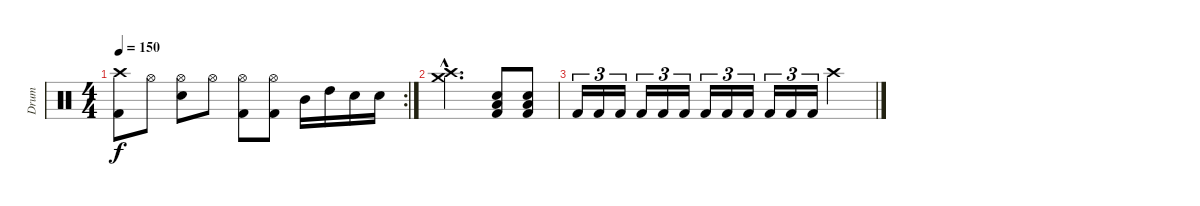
\track ("Drum" "Drum") {instrument percussion}
\staff {score}
\articulation defaults
\rc 2
\ts (4 4)
\tempo 150
\clef neutral
\ks c
("Crash high (hit)" "Kick (hit) 2").8{dy f} "Hi-Hat (open)".8 ("Hi-Hat (open)" "Electric Snare (hit)").8 "Hi-Hat (open)".8 ("Hi-Hat (open)" "Kick (hit) 2").8 ("Hi-Hat (open)" "Kick (hit) 2").8 "Mid Tom (hit)".16 "High Tom (hit)".16 "Electric Snare (hit)".16 "Electric Snare (hit)".16 |
("Crash high (hit)"{hac} "Crash medium (hit)"{hac}).2{d} ("Low Floor Tom (hit)" "Electric Snare (hit)" "Kick (hit) 2").8{volume 16} ("Low Floor Tom (hit)" "Electric Snare (hit)" "Kick (hit) 2").8{volume 16} |
"Kick (hit) 2".16{tu (3 2)} "Kick (hit) 2".16{tu (3 2)} "Kick (hit) 2".16{tu (3 2)} "Kick (hit) 2".16{tu (3 2)} "Kick (hit) 2".16{tu (3 2)} "Kick (hit) 2".16{tu (3 2)} "Kick (hit) 2".16{tu (3 2)} "Kick (hit) 2".16{tu (3 2)} "Kick (hit) 2".16{tu (3 2)} "Kick (hit) 2".16{tu (3 2)} "Kick (hit) 2".16{tu (3 2)} "Kick (hit) 2".16{tu (3 2)} "Crash high (hit)".2
